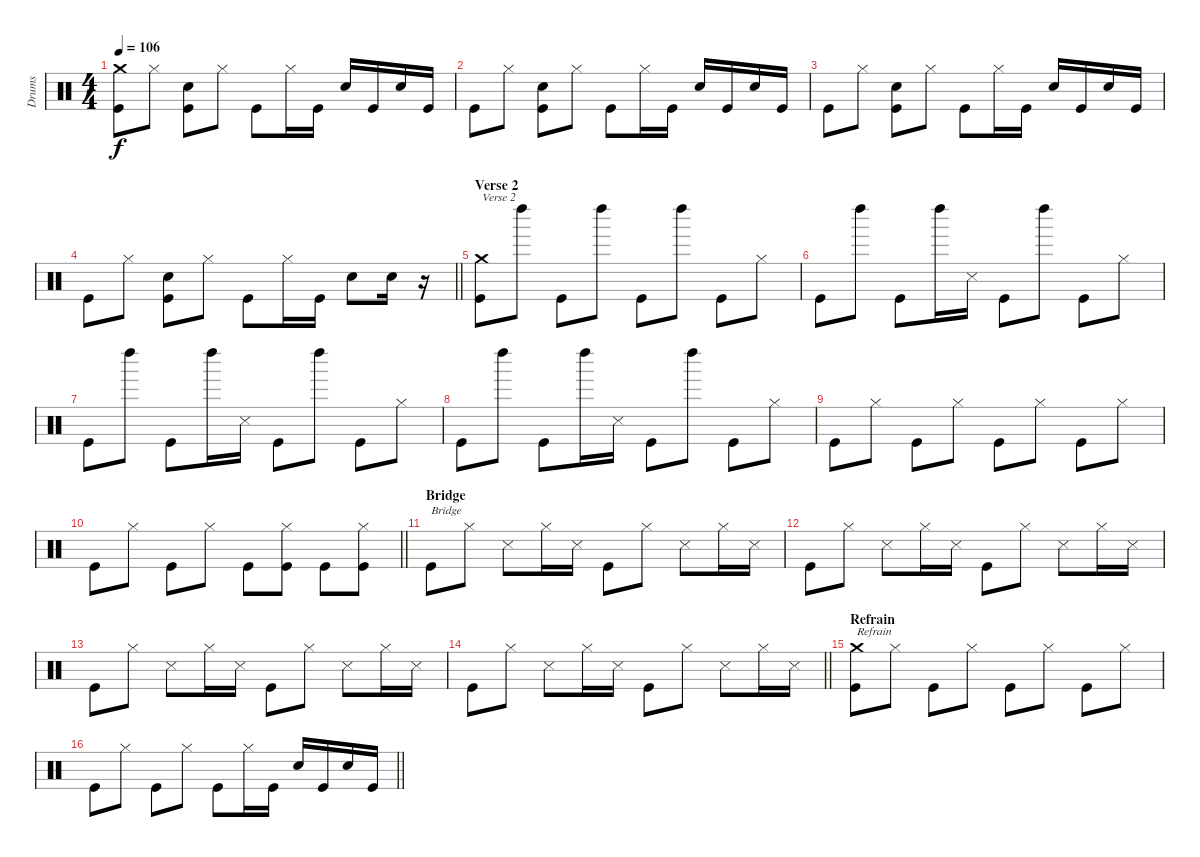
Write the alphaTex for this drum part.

\track ("Drums" "Drums") {instrument percussion}
\staff {score}
\articulation defaults
\ts (4 4)
\tempo 106
\clef neutral
\ks c
("Kick (hit)" "Crash medium (hit)").8{dy f} "Hi-Hat (closed)".8 ("Kick (hit)" "Electric Snare (hit)").8 "Hi-Hat (closed)".8 "Kick (hit)".8 "Hi-Hat (closed)".16 "Kick (hit)".16 "Electric Snare (hit)".16 "Kick (hit)".16 "Electric Snare (hit)".16 "Kick (hit)".16 |
"Kick (hit)".8 "Hi-Hat (closed)".8 ("Kick (hit)" "Electric Snare (hit)").8 "Hi-Hat (closed)".8 "Kick (hit)".8 "Hi-Hat (closed)".16 "Kick (hit)".16 "Electric Snare (hit)".16 "Kick (hit)".16 "Electric Snare (hit)".16 "Kick (hit)".16 |
"Kick (hit)".8 "Hi-Hat (closed)".8 ("Kick (hit)" "Electric Snare (hit)").8 "Hi-Hat (closed)".8 "Kick (hit)".8 "Hi-Hat (closed)".16 "Kick (hit)".16 "Electric Snare (hit)".16 "Kick (hit)".16 "Electric Snare (hit)".16 "Kick (hit)".16 |
\barLineRight lightlight "Kick (hit)".8 "Hi-Hat (closed)".8
("Kick (hit)" "Electric Snare (hit)").8 "Hi-Hat (closed)".8 "Kick (hit)".8 "Hi-Hat (closed)".16 "Kick (hit)".16 "Electric Snare (hit)".8 "Electric Snare (hit)".16 r.16 |
\section ("" "Verse 2")
("Kick (hit)" "Crash medium (hit)").8{txt "Verse 2"} "Left Maraca (hit)".8 "Kick (hit)".8 "Left Maraca (hit)".8 "Kick (hit)".8 "Left Maraca (hit)".8 "Kick (hit)".8 "Hi-Hat (closed)".8 |
"Kick (hit)".8 "Left Maraca (hit)".8 "Kick (hit)".8 "Left Maraca (hit)".16 "Snare (side stick) 3".16 "Kick (hit)".8 "Left Maraca (hit)".8 "Kick (hit)".8 "Hi-Hat (closed)".8 |
"Kick (hit)".8 "Left Maraca (hit)".8 "Kick (hit)".8 "Left Maraca (hit)".16 "Snare (side stick) 3".16 "Kick (hit)".8 "Left Maraca (hit)".8 "Kick (hit)".8 "Hi-Hat (closed)".8 |
"Kick (hit)".8 "Left Maraca (hit)".8 "Kick (hit)".8 "Left Maraca (hit)".16 "Snare (side stick) 3".16 "Kick (hit)".8 "Left Maraca (hit)".8 "Kick (hit)".8 "Hi-Hat (closed)".8 |
"Kick (hit)".8 "Hi-Hat (closed)".8 "Kick (hit)".8 "Hi-Hat (closed)".8 "Kick (hit)".8 "Hi-Hat (closed)".8 "Kick (hit)".8 "Hi-Hat (closed)".8 |
\barLineRight lightlight "Kick (hit)".8 "Hi-Hat (closed)".8 "Kick (hit)".8 "Hi-Hat (closed)".8 "Kick (hit)".8
("Kick (hit)" "Hi-Hat (closed)").8 "Kick (hit)".8 ("Kick (hit)" "Hi-Hat (closed)").8 |
\section ("" "Bridge")
"Kick (hit)".8{txt "Bridge"} "Hi-Hat (closed)".8 "Snare (side stick) 3".8 "Hi-Hat (closed)".16 "Snare (side stick) 3".16 "Kick (hit)".8 "Hi-Hat (closed)".8 "Snare (side stick) 3".8 "Hi-Hat (closed)".16 "Snare (side stick) 3".16 |
"Kick (hit)".8 "Hi-Hat (closed)".8 "Snare (side stick) 3".8 "Hi-Hat (closed)".16 "Snare (side stick) 3".16 "Kick (hit)".8 "Hi-Hat (closed)".8 "Snare (side stick) 3".8 "Hi-Hat (closed)".16 "Snare (side stick) 3".16 |
"Kick (hit)".8 "Hi-Hat (closed)".8 "Snare (side stick) 3".8 "Hi-Hat (closed)".16 "Snare (side stick) 3".16 "Kick (hit)".8 "Hi-Hat (closed)".8 "Snare (side stick) 3".8 "Hi-Hat (closed)".16 "Snare (side stick) 3".16 |
\barLineRight lightlight "Kick (hit)".8 "Hi-Hat (closed)".8 "Snare (side stick) 3".8 "Hi-Hat (closed)".16 "Snare (side stick) 3".16 "Kick (hit)".8 "Hi-Hat (closed)".8 "Snare (side stick) 3".8 "Hi-Hat (closed)".16 "Snare (side stick) 3".16
|
\section ("" "Refrain")
("Kick (hit)" "Crash medium (hit)").8{txt "Refrain"} "Hi-Hat (closed)".8 "Kick (hit)".8 "Hi-Hat (closed)".8 "Kick (hit)".8 "Hi-Hat (closed)".8 "Kick (hit)".8 "Hi-Hat (closed)".8 |
\barLineRight lightlight "Kick (hit)".8 "Hi-Hat (closed)".8 "Kick (hit)".8 "Hi-Hat (closed)".8 "Kick (hit)".8 "Hi-Hat (closed)".16 "Kick (hit)".16 "Electric Snare (hit)".16 "Kick (hit)".16 "Electric Snare (hit)".16 "Kick (hit)".16
